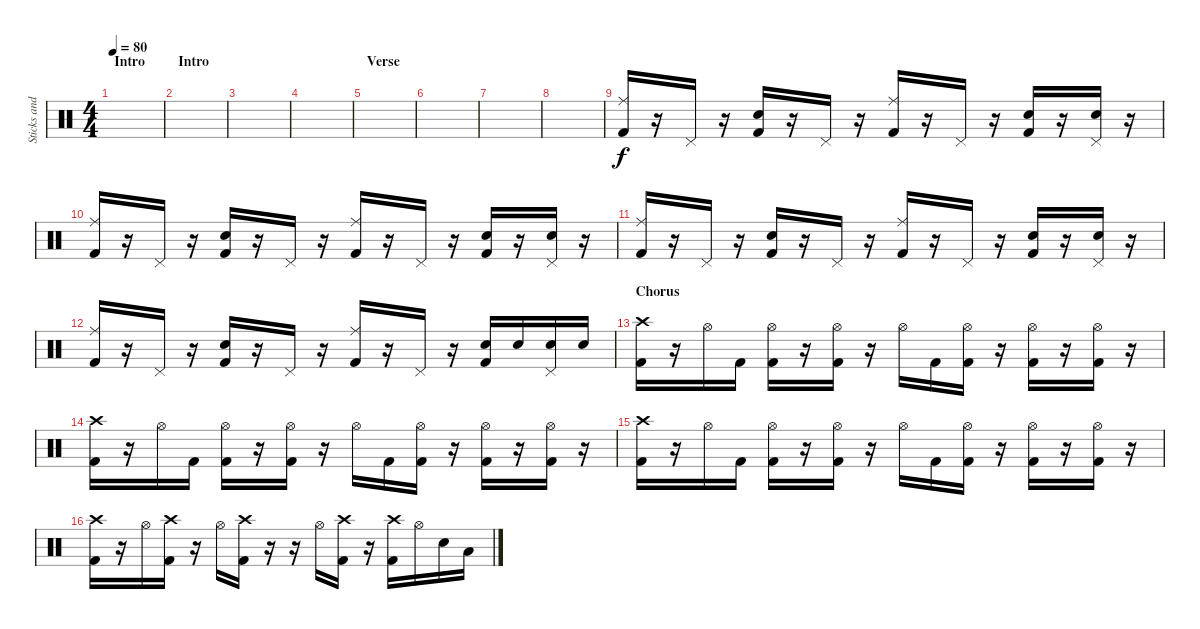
\track ("Sticks and Skins" "Sticks and") {instrument percussion}
\staff {score}
\articulation defaults
\ts (4 4)
\section ("" "Intro")
\tempo 80
\clef neutral
\ks c
|
\section ("" "Intro")
|
|
|
\section ("" "Verse")
|
|
|
|
("Ride (middle)" "Kick (hit) 2").16 r.16 "Pedal Hi-Hat (hit)".16 r.16 ("Electric Snare (hit)" "Kick (hit) 2").16 r.16 "Pedal Hi-Hat (hit)".16 r.16 ("Ride (middle)" "Kick (hit) 2").16 r.16 "Pedal Hi-Hat (hit)".16 r.16 ("Electric Snare (hit)" "Kick (hit) 2").16 r.16 ("Electric Snare (hit)" "Pedal Hi-Hat (hit)").16 r.16 |
("Ride (middle)" "Kick (hit) 2").16 r.16 "Pedal Hi-Hat (hit)".16 r.16 ("Electric Snare (hit)" "Kick (hit) 2").16 r.16 "Pedal Hi-Hat (hit)".16 r.16 ("Ride (middle)" "Kick (hit) 2").16 r.16 "Pedal Hi-Hat (hit)".16 r.16 ("Electric Snare (hit)" "Kick (hit) 2").16 r.16 ("Electric Snare (hit)" "Pedal Hi-Hat (hit)").16 r.16 |
("Ride (middle)" "Kick (hit) 2").16 r.16 "Pedal Hi-Hat (hit)".16 r.16 ("Electric Snare (hit)" "Kick (hit) 2").16 r.16 "Pedal Hi-Hat (hit)".16 r.16 ("Ride (middle)" "Kick (hit) 2").16 r.16 "Pedal Hi-Hat (hit)".16 r.16 ("Electric Snare (hit)" "Kick (hit) 2").16 r.16 ("Electric Snare (hit)" "Pedal Hi-Hat (hit)").16 r.16 |
("Ride (middle)" "Kick (hit) 2").16 r.16 "Pedal Hi-Hat (hit)".16 r.16 ("Electric Snare (hit)" "Kick (hit) 2").16 r.16 "Pedal Hi-Hat (hit)".16 r.16 ("Ride (middle)" "Kick (hit) 2").16 r.16 "Pedal Hi-Hat (hit)".16 r.16 ("Electric Snare (hit)" "Kick (hit) 2").16 "Electric Snare (hit)".16 ("Electric Snare (hit)" "Pedal Hi-Hat (hit)").16 "Electric Snare (hit)".16 |
\section ("" "Chorus")
("Crash high (hit)" "Kick (hit) 2").16 r.16 "Hi-Hat (open)".16 "Kick (hit) 2".16 ("Hi-Hat (open)" "Kick (hit) 2").16 r.16 ("Hi-Hat (open)" "Kick (hit) 2").16 r.16 "Hi-Hat (open)".16 "Kick (hit) 2".16 ("Hi-Hat (open)" "Kick (hit) 2").16 r.16 ("Hi-Hat (open)" "Kick (hit) 2").16 r.16 ("Hi-Hat (open)" "Kick (hit) 2").16 r.16 |
("Crash high (hit)" "Kick (hit) 2").16 r.16 "Hi-Hat (open)".16 "Kick (hit) 2".16 ("Hi-Hat (open)" "Kick (hit) 2").16 r.16 ("Hi-Hat (open)" "Kick (hit) 2").16 r.16 "Hi-Hat (open)".16 "Kick (hit) 2".16 ("Hi-Hat (open)" "Kick (hit) 2").16 r.16 ("Hi-Hat (open)" "Kick (hit) 2").16 r.16 ("Hi-Hat (open)" "Kick (hit) 2").16 r.16 |
("Crash high (hit)" "Kick (hit) 2").16 r.16 "Hi-Hat (open)".16 "Kick (hit) 2".16 ("Hi-Hat (open)" "Kick (hit) 2").16 r.16 ("Hi-Hat (open)" "Kick (hit) 2").16 r.16 "Hi-Hat (open)".16 "Kick (hit) 2".16 ("Hi-Hat (open)" "Kick (hit) 2").16 r.16 ("Hi-Hat (open)" "Kick (hit) 2").16 r.16 ("Hi-Hat (open)" "Kick (hit) 2").16 r.16 |
("Crash high (hit)" "Kick (hit) 2").16 r.16 "Hi-Hat (open)".16 ("Crash high (hit)" "Kick (hit) 2").16 r.16 "Hi-Hat (open)".16 ("Crash high (hit)" "Kick (hit) 2").16 r.16 r.16 "Hi-Hat (open)".16 ("Crash high (hit)" "Kick (hit) 2").16 r.16 ("Crash high (hit)" "Kick (hit) 2").16 "Hi-Hat (open)".16 "Electric Snare (hit)".16 "Low Tom (hit)".16
